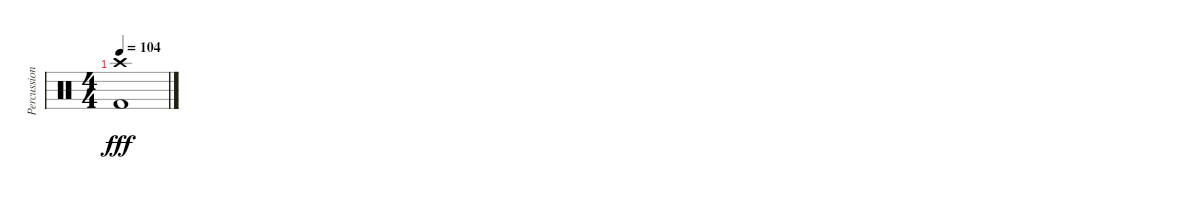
\track ("Percussion" "Percussion") {instrument percussion}
\staff {score}
\articulation defaults
\ts (4 4)
\tempo 104
\clef neutral
\ks c
("Crash high (hit)" "Kick (hit) 2").1{dy fff}
